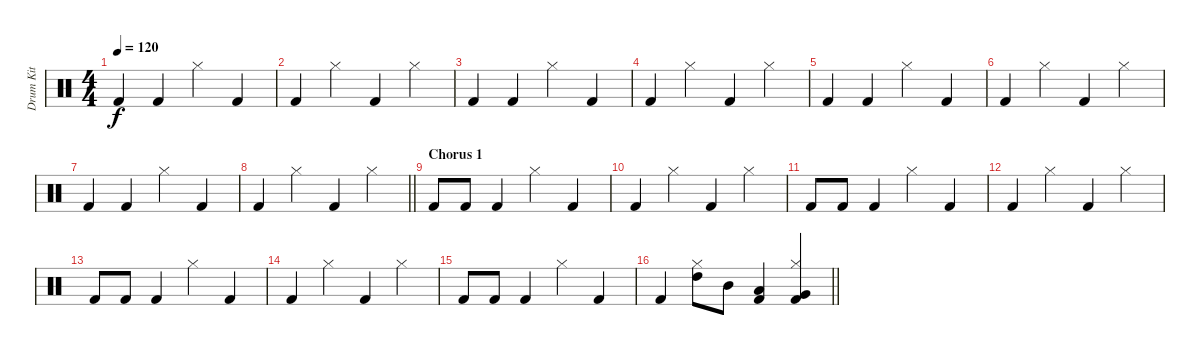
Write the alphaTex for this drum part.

\track ("Drum Kit" "Drum Kit") {instrument percussion}
\staff {score}
\articulation defaults
\ts (4 4)
\tempo 120
\clef neutral
\ks c "Kick (hit) 2".4{dy f} "Kick (hit) 2".4 "Hi-Hat (closed)".4 "Kick (hit) 2".4
|
"Kick (hit) 2".4 "Hi-Hat (closed)".4 "Kick (hit) 2".4 "Hi-Hat (closed)".4 |
"Kick (hit) 2".4 "Kick (hit) 2".4 "Hi-Hat (closed)".4 "Kick (hit) 2".4 |
"Kick (hit) 2".4 "Hi-Hat (closed)".4 "Kick (hit) 2".4 "Hi-Hat (closed)".4 |
"Kick (hit) 2".4 "Kick (hit) 2".4 "Hi-Hat (closed)".4 "Kick (hit) 2".4 |
"Kick (hit) 2".4 "Hi-Hat (closed)".4 "Kick (hit) 2".4 "Hi-Hat (closed)".4 |
"Kick (hit) 2".4 "Kick (hit) 2".4 "Hi-Hat (closed)".4 "Kick (hit) 2".4 |
\barLineRight lightlight "Kick (hit) 2".4 "Hi-Hat (closed)".4 "Kick (hit) 2".4 "Hi-Hat (closed)".4
|
\section ("" "Chorus 1")
"Kick (hit) 2".8 "Kick (hit) 2".8 "Kick (hit) 2".4 "Hi-Hat (closed)".4 "Kick (hit) 2".4 |
"Kick (hit) 2".4 "Hi-Hat (closed)".4 "Kick (hit) 2".4 "Hi-Hat (closed)".4 |
"Kick (hit) 2".8 "Kick (hit) 2".8 "Kick (hit) 2".4 "Hi-Hat (closed)".4 "Kick (hit) 2".4 |
"Kick (hit) 2".4 "Hi-Hat (closed)".4 "Kick (hit) 2".4 "Hi-Hat (closed)".4 |
"Kick (hit) 2".8 "Kick (hit) 2".8 "Kick (hit) 2".4 "Hi-Hat (closed)".4 "Kick (hit) 2".4 |
"Kick (hit) 2".4 "Hi-Hat (closed)".4 "Kick (hit) 2".4 "Hi-Hat (closed)".4 |
"Kick (hit) 2".8 "Kick (hit) 2".8 "Kick (hit) 2".4 "Hi-Hat (closed)".4 "Kick (hit) 2".4 |
\barLineRight lightlight "Kick (hit) 2".4
("High Tom (hit)" "Hi-Hat (closed)").8 "Mid Tom (hit)".8 ("Low Tom (hit)" "Kick (hit) 2").4 ("Very Low Tom (hit)" "Hi-Hat (closed)" "Kick (hit) 2").4
